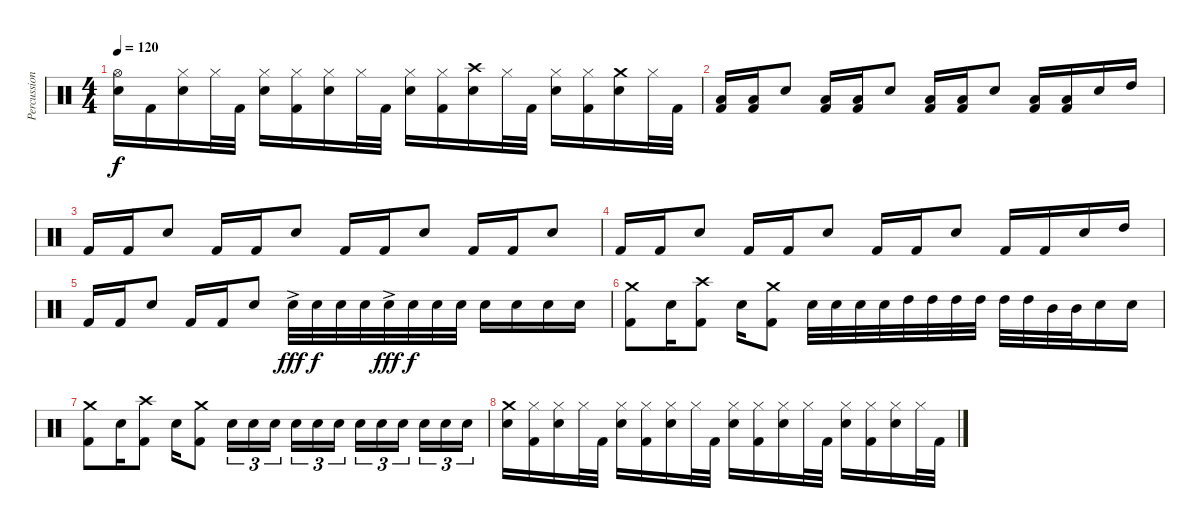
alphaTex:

\track ("Percussion" "Percussion") {instrument percussion}
\staff {score}
\articulation defaults
\ts (4 4)
\tempo 120
\clef neutral
\ks c
("Hi-Hat (open)" "Electric Snare (hit)").16{dy f} "Kick (hit) 2".16 ("Hi-Hat (closed)" "Electric Snare (hit)").16 "Hi-Hat (closed)".32 "Kick (hit) 2".32 ("Hi-Hat (closed)" "Electric Snare (hit)").16 ("Hi-Hat (closed)" "Kick (hit) 2").16 ("Hi-Hat (closed)" "Electric Snare (hit)").16 "Hi-Hat (closed)".32 "Kick (hit) 2".32 ("Hi-Hat (closed)" "Electric Snare (hit)").16 ("Hi-Hat (closed)" "Kick (hit) 2").16 ("Crash high (hit)" "Electric Snare (hit)").16 "Hi-Hat (closed)".32 "Kick (hit) 2".32 ("Hi-Hat (closed)" "Electric Snare (hit)").16 ("Hi-Hat (closed)" "Kick (hit) 2").16 ("Crash medium (hit)" "Electric Snare (hit)").16 "Hi-Hat (closed)".32 "Kick (hit) 2".32 |
("Low Tom (hit)" "Kick (hit) 2").16 ("Low Tom (hit)" "Kick (hit) 2").16 "Electric Snare (hit)".8 ("Low Tom (hit)" "Kick (hit) 2").16 ("Low Tom (hit)" "Kick (hit) 2").16 "Electric Snare (hit)".8 ("Low Tom (hit)" "Kick (hit) 2").16 ("Low Tom (hit)" "Kick (hit) 2").16 "Electric Snare (hit)".8 ("Low Tom (hit)" "Kick (hit) 2").16 ("Low Tom (hit)" "Kick (hit) 2").16 "Electric Snare (hit)".16 "High Tom (hit)".16 |
"Kick (hit) 2".16 "Kick (hit) 2".16 "Electric Snare (hit)".8 "Kick (hit) 2".16 "Kick (hit) 2".16 "Electric Snare (hit)".8 "Kick (hit) 2".16 "Kick (hit) 2".16 "Electric Snare (hit)".8 "Kick (hit) 2".16 "Kick (hit) 2".16 "Electric Snare (hit)".8 |
"Kick (hit) 2".16 "Kick (hit) 2".16 "Electric Snare (hit)".8 "Kick (hit) 2".16 "Kick (hit) 2".16 "Electric Snare (hit)".8 "Kick (hit) 2".16 "Kick (hit) 2".16 "Electric Snare (hit)".8 "Kick (hit) 2".16 "Kick (hit) 2".16 "Electric Snare (hit)".16 "High Tom (hit)".16 |
"Kick (hit) 2".16 "Kick (hit) 2".16 "Electric Snare (hit)".8 "Kick (hit) 2".16 "Kick (hit) 2".16 "Electric Snare (hit)".8 "Electric Snare (hit)"{ac}.32{dy fff} "Electric Snare (hit)".32{dy f} "Electric Snare (hit)".32 "Electric Snare (hit)".32 "Electric Snare (hit)"{ac}.32{dy fff} "Electric Snare (hit)".32{dy f} "Electric Snare (hit)".32 "Electric Snare (hit)".32 "Electric Snare (hit)".16 "Electric Snare (hit)".16 "Electric Snare (hit)".16 "Electric Snare (hit)".16 |
("Crash medium (hit)" "Kick (hit) 2").8 "Electric Snare (hit)".16 ("Crash high (hit)" "Kick (hit) 2").8 "Electric Snare (hit)".16 ("Crash medium (hit)" "Kick (hit) 2").8 "Electric Snare (hit)".32 "Electric Snare (hit)".32 "Electric Snare (hit)".32 "Electric Snare (hit)".32 "High Tom (hit)".32 "High Tom (hit)".32 "High Tom (hit)".32 "High Tom (hit)".32 "High Tom (hit)".32 "High Tom (hit)".32 "Mid Tom (hit)".32 "Mid Tom (hit)".32 "Electric Snare (hit)".16 "Electric Snare (hit)".16 |
("Crash medium (hit)" "Kick (hit) 2").8 "Electric Snare (hit)".16 ("Crash high (hit)" "Kick (hit) 2").8 "Electric Snare (hit)".16 ("Crash medium (hit)" "Kick (hit) 2").8 "Electric Snare (hit)".16{tu (3 2)} "Electric Snare (hit)".16{tu (3 2)} "Electric Snare (hit)".16{tu (3 2)} "Electric Snare (hit)".16{tu (3 2)} "Electric Snare (hit)".16{tu (3 2)} "Electric Snare (hit)".16{tu (3 2)} "Electric Snare (hit)".16{tu (3 2)} "Electric Snare (hit)".16{tu (3 2)} "Electric Snare (hit)".16{tu (3 2)} "Electric Snare (hit)".16{tu (3 2)} "Electric Snare (hit)".16{tu (3 2)} "Electric Snare (hit)".16{tu (3 2)} |
("Crash medium (hit)" "Electric Snare (hit)").16 ("Hi-Hat (closed)" "Kick (hit) 2").16 ("Hi-Hat (closed)" "Electric Snare (hit)").16 "Hi-Hat (closed)".32 "Kick (hit) 2".32 ("Hi-Hat (closed)" "Electric Snare (hit)").16 ("Hi-Hat (closed)" "Kick (hit) 2").16 ("Hi-Hat (closed)" "Electric Snare (hit)").16 "Hi-Hat (closed)".32 "Kick (hit) 2".32 ("Hi-Hat (closed)" "Electric Snare (hit)").16 ("Hi-Hat (closed)" "Kick (hit) 2").16 ("Hi-Hat (closed)" "Electric Snare (hit)").16 "Hi-Hat (closed)".32 "Kick (hit) 2".32 ("Hi-Hat (closed)" "Electric Snare (hit)").16 ("Hi-Hat (closed)" "Kick (hit) 2").16 ("Hi-Hat (closed)" "Electric Snare (hit)").16 "Hi-Hat (closed)".32 "Kick (hit) 2".32
